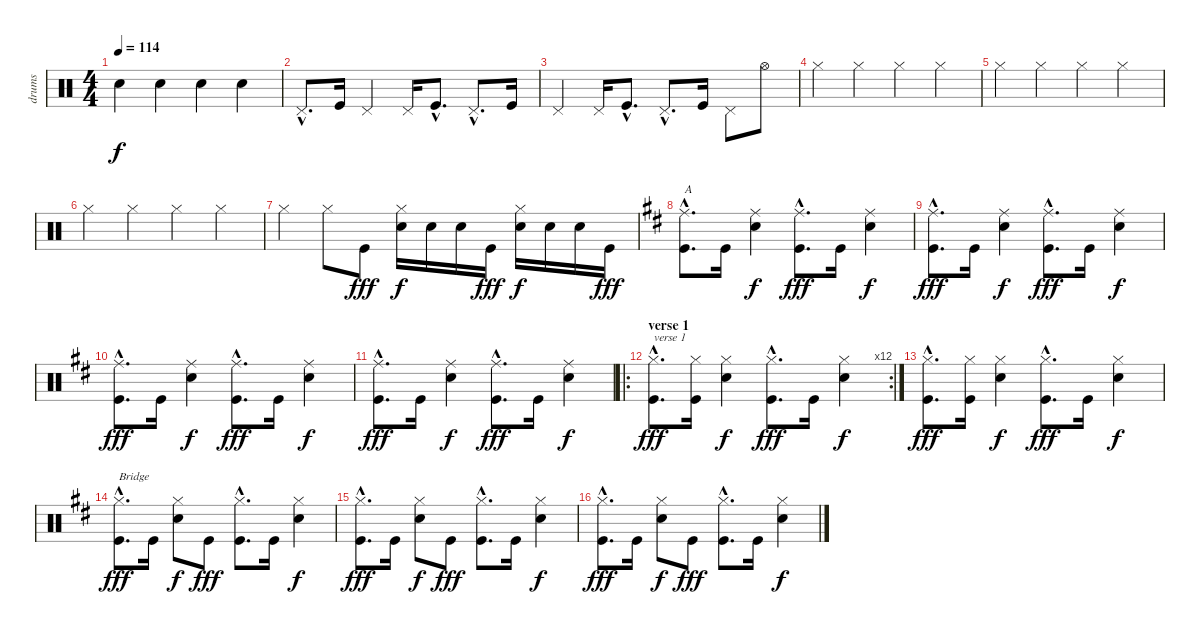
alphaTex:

\track ("drums" "drums") {instrument percussion}
\staff {score}
\articulation defaults
\ts (4 4)
\tempo 114
\clef neutral
\ks c "Snare (hit) 2".4{dy f} "Snare (hit) 2".4 "Snare (hit) 2".4 "Snare (hit) 2".4
|
"Pedal Hi-Hat (hit)"{hac}.8{d} "Kick (hit)".16 "Pedal Hi-Hat (hit)".4 "Pedal Hi-Hat (hit)".16 "Kick (hit)"{hac}.8{d} "Pedal Hi-Hat (hit)"{hac}.8{d} "Kick (hit)".16 |
"Pedal Hi-Hat (hit)".4 "Pedal Hi-Hat (hit)".16 "Kick (hit)"{hac}.8{d} "Pedal Hi-Hat (hit)"{hac}.8{d} "Kick (hit)".16 "Pedal Hi-Hat (hit)".8 "Hi-Hat (open)".8 |
"Hi-Hat (closed)".4 "Hi-Hat (closed)".4 "Hi-Hat (closed)".4 "Hi-Hat (closed)".4 |
"Hi-Hat (closed)".4 "Hi-Hat (closed)".4 "Hi-Hat (closed)".4 "Hi-Hat (closed)".4 |
"Hi-Hat (closed)".4 "Hi-Hat (closed)".4 "Hi-Hat (closed)".4 "Hi-Hat (closed)".4 |
"Hi-Hat (closed)".4 "Hi-Hat (closed)".8 "Kick (hit)".8{dy fff} ("Hi-Hat (closed)" "Snare (hit) 2").16{dy f} "Snare (hit) 2".16 "Snare (hit) 2".16 "Kick (hit)".16{dy fff} ("Hi-Hat (closed)" "Snare (hit) 2").16{dy f} "Snare (hit) 2".16 "Snare (hit) 2".16 "Kick (hit)".16{dy fff} |
\ks d
("Ride (middle)"{hac} "Kick (hit)"{hac}).8{d txt "A"} "Kick (hit)".16 ("Ride (middle)" "Snare (hit) 2").4{dy f} ("Ride (middle)"{hac} "Kick (hit)"{hac}).8{d dy fff} "Kick (hit)".16 ("Ride (middle)" "Snare (hit) 2").4{dy f} |
("Ride (middle)"{hac} "Kick (hit)"{hac}).8{d dy fff} "Kick (hit)".16 ("Ride (middle)" "Snare (hit) 2").4{dy f} ("Ride (middle)"{hac} "Kick (hit)"{hac}).8{d dy fff} "Kick (hit)".16 ("Ride (middle)" "Snare (hit) 2").4{dy f} |
("Ride (middle)"{hac} "Kick (hit)"{hac}).8{d dy fff} "Kick (hit)".16 ("Ride (middle)" "Snare (hit) 2").4{dy f} ("Ride (middle)"{hac} "Kick (hit)"{hac}).8{d dy fff} "Kick (hit)".16 ("Ride (middle)" "Snare (hit) 2").4{dy f} |
("Ride (middle)"{hac} "Kick (hit)"{hac}).8{d dy fff} "Kick (hit)".16 ("Ride (middle)" "Snare (hit) 2").4{dy f} ("Ride (middle)"{hac} "Kick (hit)"{hac}).8{d dy fff} "Kick (hit)".16 ("Ride (middle)" "Snare (hit) 2").4{dy f} |
\ro
\rc 12
\section ("" "verse 1")
("Hi-Hat (closed)"{hac} "Kick (hit)"{hac}).8{d txt "verse 1" dy fff} ("Hi-Hat (closed)" "Kick (hit)").16 ("Hi-Hat (closed)" "Snare (hit) 2").4{dy f} ("Hi-Hat (closed)"{hac} "Kick (hit)"{hac}).8{d dy fff} "Kick (hit)".16 ("Hi-Hat (closed)" "Snare (hit) 2").4{dy f} |
("Hi-Hat (closed)"{hac} "Kick (hit)"{hac}).8{d dy fff} ("Hi-Hat (closed)" "Kick (hit)").16 ("Hi-Hat (closed)" "Snare (hit) 2").4{dy f} ("Hi-Hat (closed)"{hac} "Kick (hit)"{hac}).8{d dy fff} "Kick (hit)".16 ("Hi-Hat (closed)" "Snare (hit) 2").4{dy f} |
("Hi-Hat (closed)"{hac} "Kick (hit)"{hac}).8{d txt "Bridge" dy fff} "Kick (hit)".16 ("Hi-Hat (closed)" "Snare (hit) 2").8{dy f} "Kick (hit)".8{dy fff} ("Hi-Hat (closed)"{hac} "Kick (hit)"{hac}).8{d} "Kick (hit)".16 ("Hi-Hat (closed)" "Snare (hit) 2").4{dy f} |
("Hi-Hat (closed)"{hac} "Kick (hit)"{hac}).8{d dy fff} "Kick (hit)".16 ("Hi-Hat (closed)" "Snare (hit) 2").8{dy f} "Kick (hit)".8{dy fff} ("Hi-Hat (closed)"{hac} "Kick (hit)"{hac}).8{d} "Kick (hit)".16 ("Hi-Hat (closed)" "Snare (hit) 2").4{dy f} |
("Hi-Hat (closed)"{hac} "Kick (hit)"{hac}).8{d dy fff} "Kick (hit)".16 ("Hi-Hat (closed)" "Snare (hit) 2").8{dy f} "Kick (hit)".8{dy fff} ("Hi-Hat (closed)"{hac} "Kick (hit)"{hac}).8{d} "Kick (hit)".16 ("Hi-Hat (closed)" "Snare (hit) 2").4{dy f}
